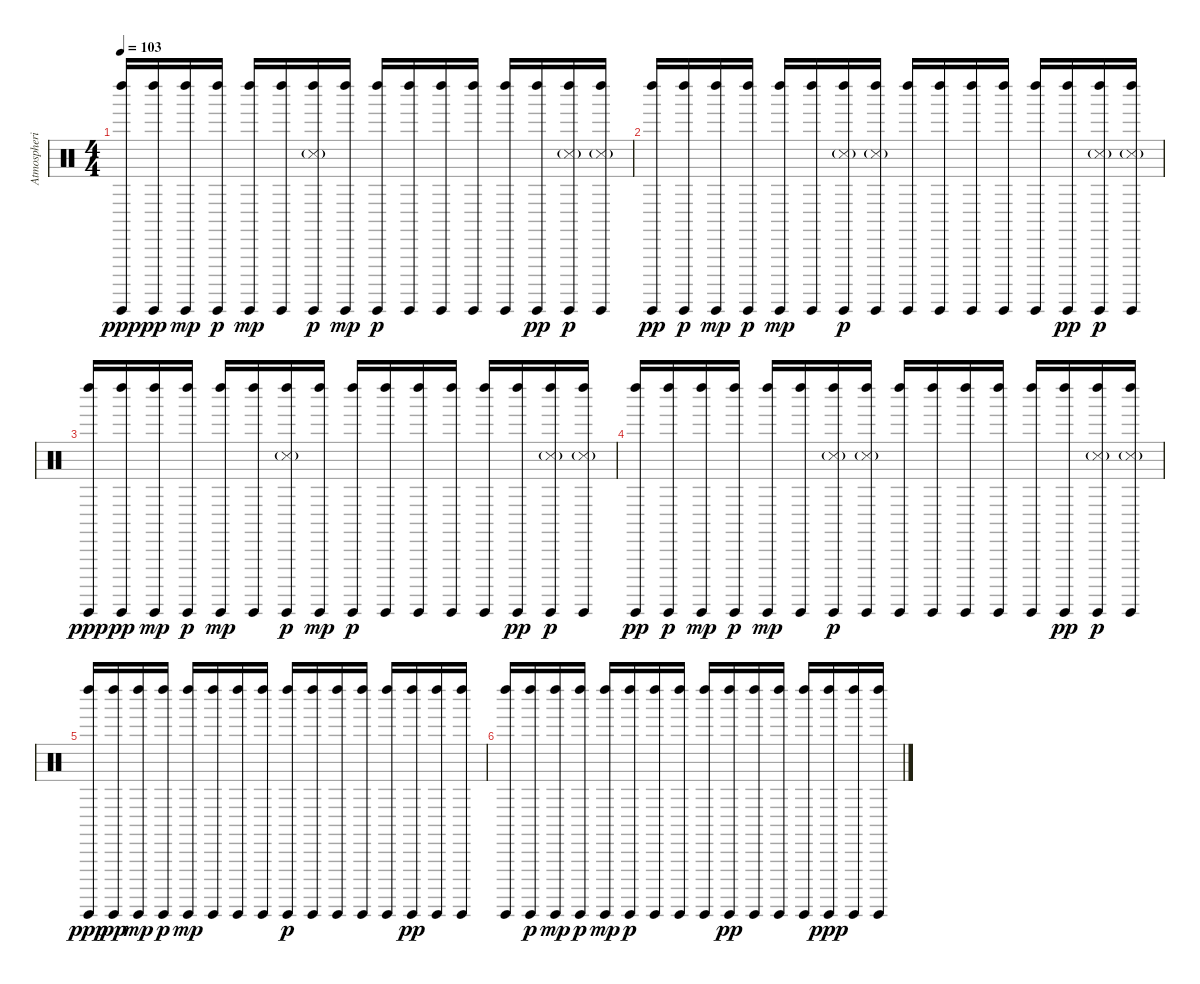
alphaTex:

\track ("Atmospheric Percussion" "Atmospheri") {instrument percussion}
\staff {score}
\articulation defaults
\ts (4 4)
\tempo 103
\clef neutral
\ks c
("Guiro (hit)" "Left Maraca (hit)").16{dy ppp} ("Guiro (hit)" "Left Maraca (hit)").16{dy pp} ("Guiro (hit)" "Left Maraca (hit)").16{dy mp} ("Guiro (hit)" "Left Maraca (hit)").16{dy p} ("Guiro (hit)" "Left Maraca (hit)").16{dy mp} ("Guiro (hit)" "Left Maraca (hit)").16 ("Guiro (hit)" "Left Maraca (hit)" "Snare (side stick) 3"{g}).16{dy p} ("Guiro (hit)" "Left Maraca (hit)").16{dy mp} ("Guiro (hit)" "Left Maraca (hit)").16{dy p} ("Guiro (hit)" "Left Maraca (hit)").16 ("Guiro (hit)" "Left Maraca (hit)").16 ("Guiro (hit)" "Left Maraca (hit)").16 ("Guiro (hit)" "Left Maraca (hit)").16 ("Guiro (hit)" "Left Maraca (hit)").16{dy pp} ("Guiro (hit)" "Left Maraca (hit)" "Snare (side stick) 3"{g}).16{dy p} ("Guiro (hit)" "Left Maraca (hit)" "Snare (side stick) 3"{g}).16 |
("Guiro (hit)" "Left Maraca (hit)").16{dy pp} ("Guiro (hit)" "Left Maraca (hit)").16{dy p} ("Guiro (hit)" "Left Maraca (hit)").16{dy mp} ("Guiro (hit)" "Left Maraca (hit)").16{dy p} ("Guiro (hit)" "Left Maraca (hit)").16{dy mp} ("Guiro (hit)" "Left Maraca (hit)").16 ("Guiro (hit)" "Left Maraca (hit)" "Snare (side stick) 3"{g}).16{dy p} ("Guiro (hit)" "Left Maraca (hit)" "Snare (side stick) 3"{g}).16 ("Guiro (hit)" "Left Maraca (hit)").16 ("Guiro (hit)" "Left Maraca (hit)").16 ("Guiro (hit)" "Left Maraca (hit)").16 ("Guiro (hit)" "Left Maraca (hit)").16 ("Guiro (hit)" "Left Maraca (hit)").16 ("Guiro (hit)" "Left Maraca (hit)").16{dy pp} ("Guiro (hit)" "Left Maraca (hit)" "Snare (side stick) 3"{g}).16{dy p} ("Guiro (hit)" "Left Maraca (hit)" "Snare (side stick) 3"{g}).16 |
("Guiro (hit)" "Left Maraca (hit)").16{dy ppp} ("Guiro (hit)" "Left Maraca (hit)").16{dy pp} ("Guiro (hit)" "Left Maraca (hit)").16{dy mp} ("Guiro (hit)" "Left Maraca (hit)").16{dy p} ("Guiro (hit)" "Left Maraca (hit)").16{dy mp} ("Guiro (hit)" "Left Maraca (hit)").16 ("Guiro (hit)" "Left Maraca (hit)" "Snare (side stick) 3"{g}).16{dy p} ("Guiro (hit)" "Left Maraca (hit)").16{dy mp} ("Guiro (hit)" "Left Maraca (hit)").16{dy p} ("Guiro (hit)" "Left Maraca (hit)").16 ("Guiro (hit)" "Left Maraca (hit)").16 ("Guiro (hit)" "Left Maraca (hit)").16 ("Guiro (hit)" "Left Maraca (hit)").16 ("Guiro (hit)" "Left Maraca (hit)").16{dy pp} ("Guiro (hit)" "Left Maraca (hit)" "Snare (side stick) 3"{g}).16{dy p} ("Guiro (hit)" "Left Maraca (hit)" "Snare (side stick) 3"{g}).16 |
("Guiro (hit)" "Left Maraca (hit)").16{dy pp} ("Guiro (hit)" "Left Maraca (hit)").16{dy p} ("Guiro (hit)" "Left Maraca (hit)").16{dy mp} ("Guiro (hit)" "Left Maraca (hit)").16{dy p} ("Guiro (hit)" "Left Maraca (hit)").16{dy mp} ("Guiro (hit)" "Left Maraca (hit)").16 ("Guiro (hit)" "Left Maraca (hit)" "Snare (side stick) 3"{g}).16{dy p} ("Guiro (hit)" "Left Maraca (hit)" "Snare (side stick) 3"{g}).16 ("Guiro (hit)" "Left Maraca (hit)").16 ("Guiro (hit)" "Left Maraca (hit)").16 ("Guiro (hit)" "Left Maraca (hit)").16 ("Guiro (hit)" "Left Maraca (hit)").16 ("Guiro (hit)" "Left Maraca (hit)").16 ("Guiro (hit)" "Left Maraca (hit)").16{dy pp} ("Guiro (hit)" "Left Maraca (hit)" "Snare (side stick) 3"{g}).16{dy p} ("Guiro (hit)" "Left Maraca (hit)" "Snare (side stick) 3"{g}).16 |
("Guiro (hit)" "Left Maraca (hit)").16{dy ppp} ("Guiro (hit)" "Left Maraca (hit)").16{dy pp} ("Guiro (hit)" "Left Maraca (hit)").16{dy mp} ("Guiro (hit)" "Left Maraca (hit)").16{dy p} ("Guiro (hit)" "Left Maraca (hit)").16{dy mp} ("Guiro (hit)" "Left Maraca (hit)").16 ("Guiro (hit)" "Left Maraca (hit)").16 ("Guiro (hit)" "Left Maraca (hit)").16 ("Guiro (hit)" "Left Maraca (hit)").16{dy p} ("Guiro (hit)" "Left Maraca (hit)").16 ("Guiro (hit)" "Left Maraca (hit)").16 ("Guiro (hit)" "Left Maraca (hit)").16 ("Guiro (hit)" "Left Maraca (hit)").16 ("Guiro (hit)" "Left Maraca (hit)").16{dy pp} ("Guiro (hit)" "Left Maraca (hit)").16 ("Guiro (hit)" "Left Maraca (hit)").16 |
("Guiro (hit)" "Left Maraca (hit)").16 ("Guiro (hit)" "Left Maraca (hit)").16{dy p} ("Guiro (hit)" "Left Maraca (hit)").16{dy mp} ("Guiro (hit)" "Left Maraca (hit)").16{dy p} ("Guiro (hit)" "Left Maraca (hit)").16{dy mp} ("Guiro (hit)" "Left Maraca (hit)").16{dy p} ("Guiro (hit)" "Left Maraca (hit)").16 ("Guiro (hit)" "Left Maraca (hit)").16 ("Guiro (hit)" "Left Maraca (hit)").16 ("Guiro (hit)" "Left Maraca (hit)").16{dy pp} ("Guiro (hit)" "Left Maraca (hit)").16 ("Guiro (hit)" "Left Maraca (hit)").16 ("Guiro (hit)" "Left Maraca (hit)").16 ("Guiro (hit)" "Left Maraca (hit)").16{dy ppp} ("Guiro (hit)" "Left Maraca (hit)").16 ("Guiro (hit)" "Left Maraca (hit)").16
